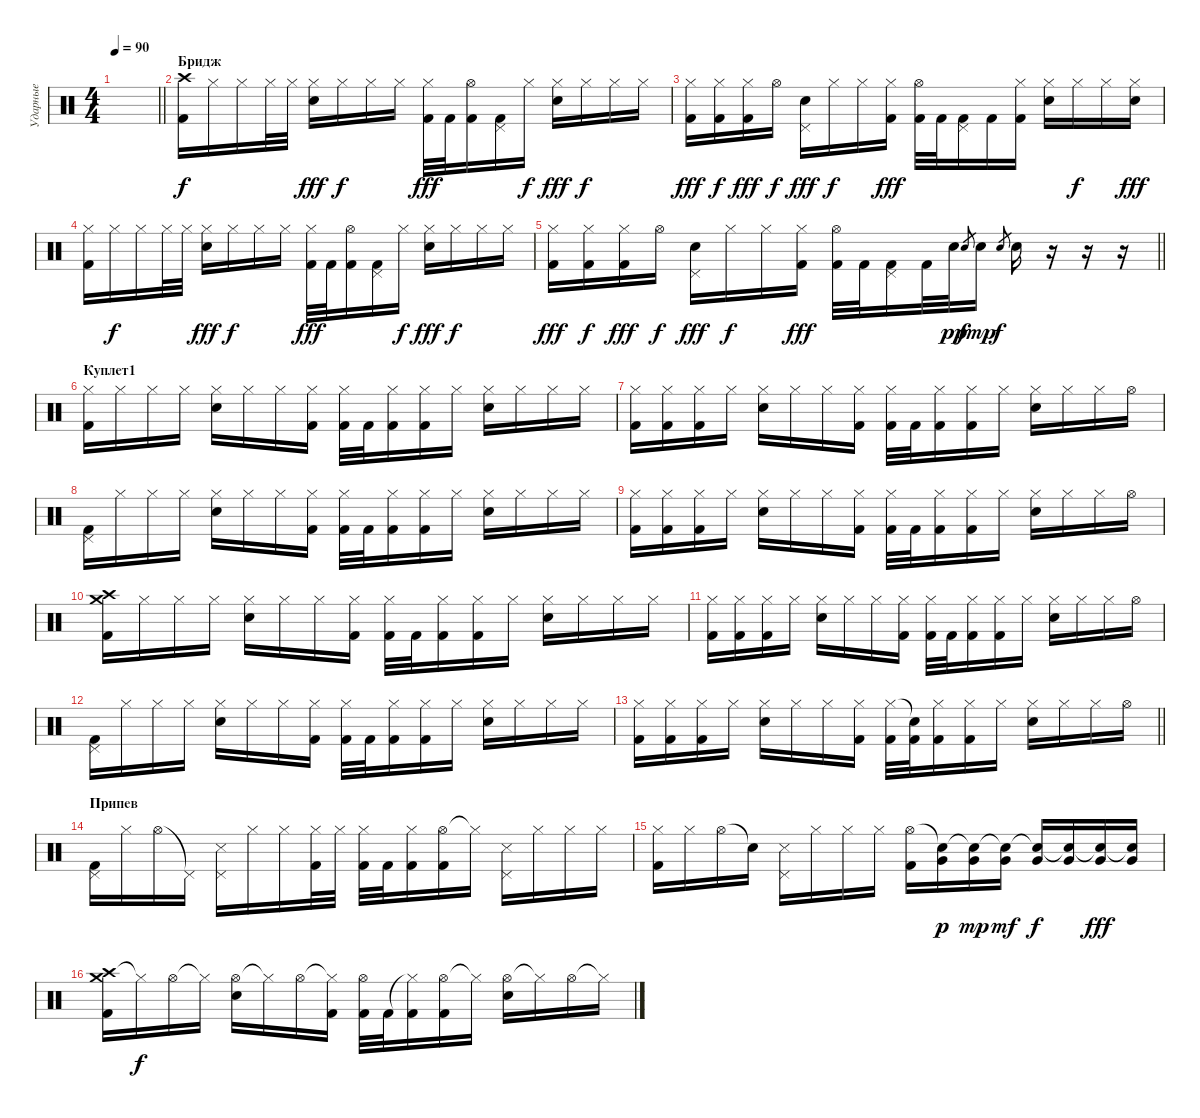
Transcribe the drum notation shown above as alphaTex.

\track ("Ударные" "Ударные") {instrument percussion}
\staff {score}
\articulation defaults
\ts (4 4)
\tempo 90
\clef neutral
\barLineRight lightlight
\ks c
|
\section ("" "Бридж")
("Crash high (hit)" "Kick (hit) 2").16 "Hi-Hat (closed)".16{dy f} "Hi-Hat (closed)".16 "Hi-Hat (closed)".32 "Hi-Hat (closed)".32 ("Hi-Hat (closed)" "Electric Snare (hit)").16{dy fff} "Hi-Hat (closed)".16{dy f} "Hi-Hat (closed)".16 "Hi-Hat (closed)".16 ("Hi-Hat (closed)" "Kick (hit) 2").32{dy fff} "Kick (hit) 2".32 ("Hi-Hat (open)" "Kick (hit) 2").16 ("Pedal Hi-Hat (hit)" "Kick (hit) 2").16 "Hi-Hat (closed)".16{dy f} ("Hi-Hat (closed)" "Electric Snare (hit)").16{dy fff} "Hi-Hat (closed)".16{dy f} "Hi-Hat (closed)".16 "Hi-Hat (closed)".16 |
("Hi-Hat (closed)" "Kick (hit) 2").16{dy fff} ("Hi-Hat (closed)" "Kick (hit) 2").16{dy f} ("Hi-Hat (closed)" "Kick (hit) 2").16{dy fff} "Hi-Hat (open)".16{dy f} ("Pedal Hi-Hat (hit)" "Electric Snare (hit)").16{dy fff} "Hi-Hat (closed)".16{dy f} "Hi-Hat (closed)".16 ("Hi-Hat (closed)" "Kick (hit) 2").16{dy fff} ("Hi-Hat (open)" "Kick (hit) 2").32 "Kick (hit) 2".32 ("Pedal Hi-Hat (hit)" "Kick (hit) 2").16 "Kick (hit) 2".16 ("Hi-Hat (closed)" "Kick (hit) 2").16 ("Hi-Hat (closed)" "Electric Snare (hit)").16 "Hi-Hat (closed)".16{dy f} "Hi-Hat (closed)".16 ("Hi-Hat (closed)" "Electric Snare (hit)").16{dy fff} |
("Hi-Hat (closed)" "Kick (hit) 2").16 "Hi-Hat (closed)".16{dy f} "Hi-Hat (closed)".16 "Hi-Hat (closed)".32 "Hi-Hat (closed)".32 ("Hi-Hat (closed)" "Electric Snare (hit)").16{dy fff} "Hi-Hat (closed)".16{dy f} "Hi-Hat (closed)".16 "Hi-Hat (closed)".16 ("Hi-Hat (closed)" "Kick (hit) 2").32{dy fff} "Kick (hit) 2".32 ("Hi-Hat (open)" "Kick (hit) 2").16 ("Pedal Hi-Hat (hit)" "Kick (hit) 2").16 "Hi-Hat (closed)".16{dy f} ("Hi-Hat (closed)" "Electric Snare (hit)").16{dy fff} "Hi-Hat (closed)".16{dy f} "Hi-Hat (closed)".16 "Hi-Hat (closed)".16 |
\barLineRight lightlight
("Hi-Hat (closed)" "Kick (hit) 2").16{dy fff} ("Hi-Hat (closed)" "Kick (hit) 2").16{dy f} ("Hi-Hat (closed)" "Kick (hit) 2").16{dy fff} "Hi-Hat (open)".16{dy f} ("Pedal Hi-Hat (hit)" "Electric Snare (hit)").16{dy fff} "Hi-Hat (closed)".16{dy f} "Hi-Hat (closed)".16 ("Hi-Hat (closed)" "Kick (hit) 2").16{dy fff} ("Hi-Hat (open)" "Kick (hit) 2").32 "Kick (hit) 2".32 ("Pedal Hi-Hat (hit)" "Kick (hit) 2").16 "Kick (hit) 2".32 "Electric Snare (hit)".32{dy pp} "Electric Snare (hit)".8{gr dy f} "Electric Snare (hit)".16{dy mp} "Electric Snare (hit)".8{gr dy f} "Electric Snare (hit)".16 r.16 r.16 r.16 |
\section ("" "Куплет1")
("Hi-Hat (closed)" "Kick (hit) 2").16 "Hi-Hat (closed)".16 "Hi-Hat (closed)".16 "Hi-Hat (closed)".16 ("Hi-Hat (closed)" "Electric Snare (hit)").16 "Hi-Hat (closed)".16 "Hi-Hat (closed)".16 ("Hi-Hat (closed)" "Kick (hit) 2").16 ("Hi-Hat (closed)" "Kick (hit) 2").32 "Kick (hit) 2".32 ("Hi-Hat (closed)" "Kick (hit) 2").16 ("Hi-Hat (closed)" "Kick (hit) 2").16 "Hi-Hat (closed)".16 ("Hi-Hat (closed)" "Electric Snare (hit)").16 "Hi-Hat (closed)".16 "Hi-Hat (closed)".16 "Hi-Hat (closed)".16 |
("Hi-Hat (closed)" "Kick (hit) 2").16 ("Hi-Hat (closed)" "Kick (hit) 2").16 ("Hi-Hat (closed)" "Kick (hit) 2").16 "Hi-Hat (closed)".16 ("Hi-Hat (closed)" "Electric Snare (hit)").16 "Hi-Hat (closed)".16 "Hi-Hat (closed)".16 ("Hi-Hat (closed)" "Kick (hit) 2").16 ("Hi-Hat (closed)" "Kick (hit) 2").32 "Kick (hit) 2".32 ("Hi-Hat (closed)" "Kick (hit) 2").16 ("Hi-Hat (closed)" "Kick (hit) 2").16 "Hi-Hat (closed)".16 ("Hi-Hat (closed)" "Electric Snare (hit)").16 "Hi-Hat (closed)".16 "Hi-Hat (closed)".16 "Hi-Hat (open)".16 |
("Pedal Hi-Hat (hit)" "Kick (hit) 2").16 "Hi-Hat (closed)".16 "Hi-Hat (closed)".16 "Hi-Hat (closed)".16 ("Hi-Hat (closed)" "Electric Snare (hit)").16 "Hi-Hat (closed)".16 "Hi-Hat (closed)".16 ("Hi-Hat (closed)" "Kick (hit) 2").16 ("Hi-Hat (closed)" "Kick (hit) 2").32 "Kick (hit) 2".32 ("Hi-Hat (closed)" "Kick (hit) 2").16 ("Hi-Hat (closed)" "Kick (hit) 2").16 "Hi-Hat (closed)".16 ("Hi-Hat (closed)" "Electric Snare (hit)").16 "Hi-Hat (closed)".16 "Hi-Hat (closed)".16 "Hi-Hat (closed)".16 |
("Hi-Hat (closed)" "Kick (hit) 2").16 ("Hi-Hat (closed)" "Kick (hit) 2").16 ("Hi-Hat (closed)" "Kick (hit) 2").16 "Hi-Hat (closed)".16 ("Hi-Hat (closed)" "Electric Snare (hit)").16 "Hi-Hat (closed)".16 "Hi-Hat (closed)".16 ("Hi-Hat (closed)" "Kick (hit) 2").16 ("Hi-Hat (closed)" "Kick (hit) 2").32 "Kick (hit) 2".32 ("Hi-Hat (closed)" "Kick (hit) 2").16 ("Hi-Hat (closed)" "Kick (hit) 2").16 "Hi-Hat (closed)".16 ("Hi-Hat (closed)" "Electric Snare (hit)").16 "Hi-Hat (closed)".16 "Hi-Hat (closed)".16 "Hi-Hat (open)".16 |
("Crash high (hit)" "Crash medium (hit)" "Kick (hit) 2").16 "Hi-Hat (closed)".16 "Hi-Hat (closed)".16 "Hi-Hat (closed)".16 ("Hi-Hat (closed)" "Electric Snare (hit)").16 "Hi-Hat (closed)".16 "Hi-Hat (closed)".16 ("Hi-Hat (closed)" "Kick (hit) 2").16 ("Hi-Hat (closed)" "Kick (hit) 2").32 "Kick (hit) 2".32 ("Hi-Hat (closed)" "Kick (hit) 2").16 ("Hi-Hat (closed)" "Kick (hit) 2").16 "Hi-Hat (closed)".16 ("Hi-Hat (closed)" "Electric Snare (hit)").16 "Hi-Hat (closed)".16 "Hi-Hat (closed)".16 "Hi-Hat (closed)".16 |
("Hi-Hat (closed)" "Kick (hit) 2").16 ("Hi-Hat (closed)" "Kick (hit) 2").16 ("Hi-Hat (closed)" "Kick (hit) 2").16 "Hi-Hat (closed)".16 ("Hi-Hat (closed)" "Electric Snare (hit)").16 "Hi-Hat (closed)".16 "Hi-Hat (closed)".16 ("Hi-Hat (closed)" "Kick (hit) 2").16 ("Hi-Hat (closed)" "Kick (hit) 2").32 "Kick (hit) 2".32 ("Hi-Hat (closed)" "Kick (hit) 2").16 ("Hi-Hat (closed)" "Kick (hit) 2").16 "Hi-Hat (closed)".16 ("Hi-Hat (closed)" "Electric Snare (hit)").16 "Hi-Hat (closed)".16 "Hi-Hat (closed)".16 "Hi-Hat (open)".16 |
("Pedal Hi-Hat (hit)" "Kick (hit) 2").16 "Hi-Hat (closed)".16 "Hi-Hat (closed)".16 "Hi-Hat (closed)".16 ("Hi-Hat (closed)" "Electric Snare (hit)").16 "Hi-Hat (closed)".16 "Hi-Hat (closed)".16 ("Hi-Hat (closed)" "Kick (hit) 2").16 ("Hi-Hat (closed)" "Kick (hit) 2").32 "Kick (hit) 2".32 ("Hi-Hat (closed)" "Kick (hit) 2").16 ("Hi-Hat (closed)" "Kick (hit) 2").16 "Hi-Hat (closed)".16 ("Hi-Hat (closed)" "Electric Snare (hit)").16 "Hi-Hat (closed)".16 "Hi-Hat (closed)".16 "Hi-Hat (closed)".16 |
\barLineRight lightlight
("Hi-Hat (closed)" "Kick (hit) 2").16 ("Hi-Hat (closed)" "Kick (hit) 2").16 ("Hi-Hat (closed)" "Kick (hit) 2").16 "Hi-Hat (closed)".16 ("Hi-Hat (closed)" "Electric Snare (hit)").16 "Hi-Hat (closed)".16 "Hi-Hat (closed)".16 ("Hi-Hat (closed)" "Kick (hit) 2").16 ("Hi-Hat (closed)" "Kick (hit) 2").32 ("Snare (hit)"{t} "Kick (hit) 2").32 ("Hi-Hat (closed)" "Kick (hit) 2").16 ("Hi-Hat (closed)" "Kick (hit) 2").16 "Hi-Hat (closed)".16 ("Hi-Hat (closed)" "Electric Snare (hit)").16 "Hi-Hat (closed)".16 "Hi-Hat (closed)".16 "Hi-Hat (open)".16 |
\section ("" "Припев")
("Pedal Hi-Hat (hit)" "Kick (hit) 2").16 "Hi-Hat (closed)".16 "Hi-Hat (open)".16 "Pedal Hi-Hat (hit)"{t}.16 ("Pedal Hi-Hat (hit)" "Snare (side stick) 3").16 "Hi-Hat (closed)".16 "Hi-Hat (closed)".16 ("Hi-Hat (closed)" "Kick (hit) 2").32 "Hi-Hat (closed)".32 ("Hi-Hat (closed)" "Kick (hit) 2").32 "Kick (hit) 2".32 ("Hi-Hat (closed)" "Kick (hit) 2").16 ("Hi-Hat (open)" "Kick (hit) 2").16 "Hi-Hat (closed)"{t}.16 ("Pedal Hi-Hat (hit)" "Snare (side stick) 3").16 "Hi-Hat (closed)".16 "Hi-Hat (closed)".16 "Hi-Hat (closed)".16 |
("Hi-Hat (closed)" "Kick (hit) 2").16 "Hi-Hat (closed)".16 "Hi-Hat (open)".16 "Snare (hit)"{t}.16 ("Pedal Hi-Hat (hit)" "Snare (side stick) 3").16 "Hi-Hat (closed)".16 "Hi-Hat (closed)".16 "Hi-Hat (closed)".16 ("Hi-Hat (open)" "Kick (hit) 2").16 ("Snare (hit)"{t} "Very Low Tom (hit)").16{dy p} ("Snare (hit)"{t} "Very Low Tom (hit)").16{dy mp} ("Snare (hit)"{t} "Very Low Tom (hit)").16{dy mf} ("Snare (hit)"{t} "Very Low Tom (hit)").16{dy f} ("Snare (hit)"{t} "Very Low Tom (hit)").16 ("Snare (hit)"{t} "Very Low Tom (hit)").16{dy fff} ("Snare (hit)"{t} "Very Low Tom (hit)").16 |
("Crash high (hit)" "Crash medium (hit)" "Kick (hit) 2").16 "Hi-Hat (closed)"{t}.16{dy f} "Hi-Hat (open)".16 "Hi-Hat (closed)"{t}.16 ("Hi-Hat (open)" "Electric Snare (hit)").16 "Hi-Hat (closed)"{t}.16 "Hi-Hat (open)".16 ("Hi-Hat (closed)"{t} "Kick (hit) 2").16 ("Hi-Hat (open)" "Kick (hit) 2").32 "Kick (hit) 2".32 ("Hi-Hat (closed)"{t} "Kick (hit) 2").16 ("Hi-Hat (open)" "Kick (hit) 2").16 "Hi-Hat (closed)"{t}.16 ("Hi-Hat (open)" "Electric Snare (hit)").16 "Hi-Hat (closed)"{t}.16 "Hi-Hat (open)".16 "Hi-Hat (closed)"{t}.16
